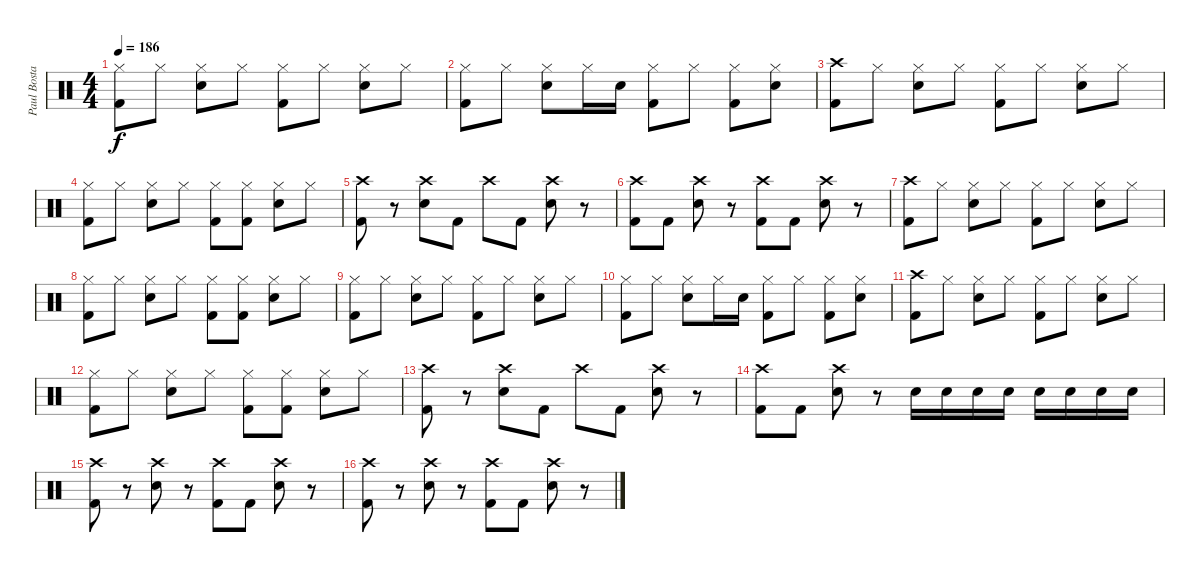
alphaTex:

\track ("Paul Bostaph" "Paul Bosta") {instrument percussion}
\staff {score}
\articulation defaults
\ts (4 4)
\tempo 186
\clef neutral
\ks c
("Hi-Hat (closed)" "Kick (hit) 2").8{dy f} "Hi-Hat (closed)".8 ("Hi-Hat (closed)" "Electric Snare (hit)").8 "Hi-Hat (closed)".8 ("Hi-Hat (closed)" "Kick (hit) 2").8 "Hi-Hat (closed)".8 ("Hi-Hat (closed)" "Electric Snare (hit)").8 "Hi-Hat (closed)".8 |
("Hi-Hat (closed)" "Kick (hit) 2").8 "Hi-Hat (closed)".8 ("Hi-Hat (closed)" "Electric Snare (hit)").8 "Hi-Hat (closed)".16 "Electric Snare (hit)".16 ("Hi-Hat (closed)" "Kick (hit) 2").8 "Hi-Hat (closed)".8 ("Hi-Hat (closed)" "Kick (hit) 2").8 ("Hi-Hat (closed)" "Electric Snare (hit)").8 |
("Crash high (hit)" "Kick (hit) 2").8 "Hi-Hat (closed)".8 ("Hi-Hat (closed)" "Electric Snare (hit)").8 "Hi-Hat (closed)".8 ("Hi-Hat (closed)" "Kick (hit) 2").8 "Hi-Hat (closed)".8 ("Hi-Hat (closed)" "Electric Snare (hit)").8 "Hi-Hat (closed)".8 |
("Hi-Hat (closed)" "Kick (hit) 2").8 "Hi-Hat (closed)".8 ("Hi-Hat (closed)" "Electric Snare (hit)").8 "Hi-Hat (closed)".8 ("Hi-Hat (closed)" "Kick (hit) 2").8 ("Hi-Hat (closed)" "Kick (hit) 2").8 ("Hi-Hat (closed)" "Electric Snare (hit)").8 "Hi-Hat (closed)".8 |
("Crash high (hit)" "Kick (hit) 2").8 r.8 ("Crash high (hit)" "Electric Snare (hit)").8 "Kick (hit) 2".8 "Crash high (hit)".8 "Kick (hit) 2".8 ("Crash high (hit)" "Electric Snare (hit)").8 r.8 |
("Crash high (hit)" "Kick (hit) 2").8 "Kick (hit) 2".8 ("Crash high (hit)" "Electric Snare (hit)").8 r.8 ("Crash high (hit)" "Kick (hit) 2").8 "Kick (hit) 2".8 ("Crash high (hit)" "Electric Snare (hit)").8 r.8 |
("Crash high (hit)" "Kick (hit) 2").8 "Hi-Hat (closed)".8 ("Hi-Hat (closed)" "Electric Snare (hit)").8 "Hi-Hat (closed)".8 ("Hi-Hat (closed)" "Kick (hit) 2").8 "Hi-Hat (closed)".8 ("Hi-Hat (closed)" "Electric Snare (hit)").8 "Hi-Hat (closed)".8 |
("Hi-Hat (closed)" "Kick (hit) 2").8 "Hi-Hat (closed)".8 ("Hi-Hat (closed)" "Electric Snare (hit)").8 "Hi-Hat (closed)".8 ("Hi-Hat (closed)" "Kick (hit) 2").8 ("Hi-Hat (closed)" "Kick (hit) 2").8 ("Hi-Hat (closed)" "Electric Snare (hit)").8 "Hi-Hat (closed)".8 |
("Hi-Hat (closed)" "Kick (hit) 2").8 "Hi-Hat (closed)".8 ("Hi-Hat (closed)" "Electric Snare (hit)").8 "Hi-Hat (closed)".8 ("Hi-Hat (closed)" "Kick (hit) 2").8 "Hi-Hat (closed)".8 ("Hi-Hat (closed)" "Electric Snare (hit)").8 "Hi-Hat (closed)".8 |
("Hi-Hat (closed)" "Kick (hit) 2").8 "Hi-Hat (closed)".8 ("Hi-Hat (closed)" "Electric Snare (hit)").8 "Hi-Hat (closed)".16 "Electric Snare (hit)".16 ("Hi-Hat (closed)" "Kick (hit) 2").8 "Hi-Hat (closed)".8 ("Hi-Hat (closed)" "Kick (hit) 2").8 ("Hi-Hat (closed)" "Electric Snare (hit)").8 |
("Crash high (hit)" "Kick (hit) 2").8 "Hi-Hat (closed)".8 ("Hi-Hat (closed)" "Electric Snare (hit)").8 "Hi-Hat (closed)".8 ("Hi-Hat (closed)" "Kick (hit) 2").8 "Hi-Hat (closed)".8 ("Hi-Hat (closed)" "Electric Snare (hit)").8 "Hi-Hat (closed)".8 |
("Hi-Hat (closed)" "Kick (hit) 2").8 "Hi-Hat (closed)".8 ("Hi-Hat (closed)" "Electric Snare (hit)").8 "Hi-Hat (closed)".8 ("Hi-Hat (closed)" "Kick (hit) 2").8 ("Hi-Hat (closed)" "Kick (hit) 2").8 ("Hi-Hat (closed)" "Electric Snare (hit)").8 "Hi-Hat (closed)".8 |
("Crash high (hit)" "Kick (hit) 2").8 r.8 ("Crash high (hit)" "Electric Snare (hit)").8 "Kick (hit) 2".8 "Crash high (hit)".8 "Kick (hit) 2".8 ("Crash high (hit)" "Electric Snare (hit)").8 r.8 |
("Crash high (hit)" "Kick (hit) 2").8 "Kick (hit) 2".8 ("Crash high (hit)" "Electric Snare (hit)").8 r.8 "Electric Snare (hit)".16 "Electric Snare (hit)".16 "Electric Snare (hit)".16 "Electric Snare (hit)".16 "Electric Snare (hit)".16 "Electric Snare (hit)".16 "Electric Snare (hit)".16 "Electric Snare (hit)".16 |
("Crash high (hit)" "Kick (hit) 2").8 r.8 ("Crash high (hit)" "Electric Snare (hit)").8 r.8 ("Crash high (hit)" "Kick (hit) 2").8 "Kick (hit) 2".8 ("Crash high (hit)" "Electric Snare (hit)").8 r.8 |
("Crash high (hit)" "Kick (hit) 2").8 r.8 ("Crash high (hit)" "Electric Snare (hit)").8 r.8 ("Crash high (hit)" "Kick (hit) 2").8 "Kick (hit) 2".8 ("Crash high (hit)" "Electric Snare (hit)").8 r.8
